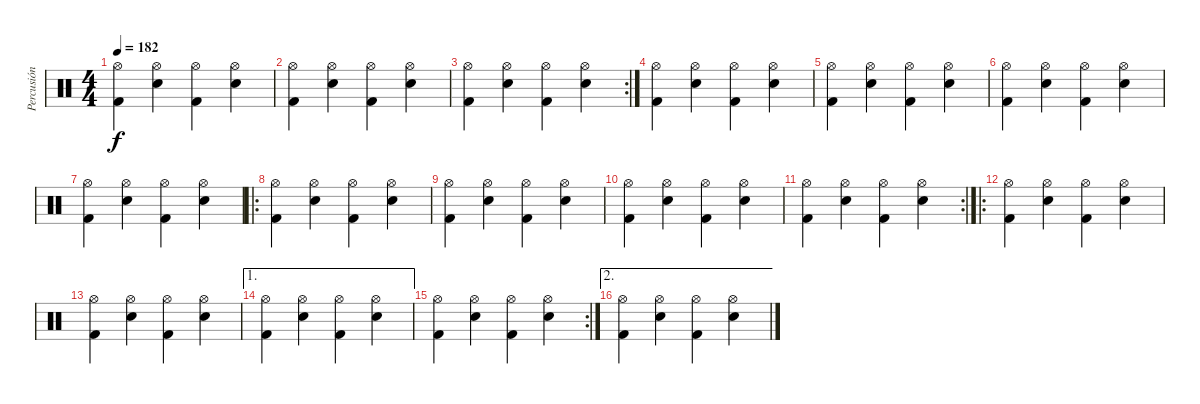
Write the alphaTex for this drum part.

\track ("Percusión" "Percusión") {instrument percussion}
\staff {score}
\articulation defaults
\ts (4 4)
\tempo 182
\clef neutral
\ks c
("Kick (hit) 2" "Hi-Hat (open)").4{dy f} ("Electric Snare (hit)" "Hi-Hat (open)").4 ("Kick (hit) 2" "Hi-Hat (open)").4 ("Electric Snare (hit)" "Hi-Hat (open)").4 |
("Kick (hit) 2" "Hi-Hat (open)").4 ("Electric Snare (hit)" "Hi-Hat (open)").4 ("Kick (hit) 2" "Hi-Hat (open)").4 ("Electric Snare (hit)" "Hi-Hat (open)").4 |
\rc 2
("Kick (hit) 2" "Hi-Hat (open)").4 ("Electric Snare (hit)" "Hi-Hat (open)").4 ("Kick (hit) 2" "Hi-Hat (open)").4 ("Electric Snare (hit)" "Hi-Hat (open)").4 |
("Kick (hit) 2" "Hi-Hat (open)").4 ("Electric Snare (hit)" "Hi-Hat (open)").4 ("Kick (hit) 2" "Hi-Hat (open)").4 ("Electric Snare (hit)" "Hi-Hat (open)").4 |
("Kick (hit) 2" "Hi-Hat (open)").4 ("Electric Snare (hit)" "Hi-Hat (open)").4 ("Kick (hit) 2" "Hi-Hat (open)").4 ("Electric Snare (hit)" "Hi-Hat (open)").4 |
("Kick (hit) 2" "Hi-Hat (open)").4 ("Electric Snare (hit)" "Hi-Hat (open)").4 ("Kick (hit) 2" "Hi-Hat (open)").4 ("Electric Snare (hit)" "Hi-Hat (open)").4 |
("Kick (hit) 2" "Hi-Hat (open)").4 ("Electric Snare (hit)" "Hi-Hat (open)").4 ("Kick (hit) 2" "Hi-Hat (open)").4 ("Electric Snare (hit)" "Hi-Hat (open)").4 |
\ro
("Kick (hit) 2" "Hi-Hat (open)").4 ("Electric Snare (hit)" "Hi-Hat (open)").4 ("Kick (hit) 2" "Hi-Hat (open)").4 ("Electric Snare (hit)" "Hi-Hat (open)").4 |
("Kick (hit) 2" "Hi-Hat (open)").4 ("Electric Snare (hit)" "Hi-Hat (open)").4 ("Kick (hit) 2" "Hi-Hat (open)").4 ("Electric Snare (hit)" "Hi-Hat (open)").4 |
("Kick (hit) 2" "Hi-Hat (open)").4 ("Electric Snare (hit)" "Hi-Hat (open)").4 ("Kick (hit) 2" "Hi-Hat (open)").4 ("Electric Snare (hit)" "Hi-Hat (open)").4 |
\rc 2
("Kick (hit) 2" "Hi-Hat (open)").4 ("Electric Snare (hit)" "Hi-Hat (open)").4 ("Kick (hit) 2" "Hi-Hat (open)").4 ("Electric Snare (hit)" "Hi-Hat (open)").4 |
\ro
("Kick (hit) 2" "Hi-Hat (open)").4 ("Electric Snare (hit)" "Hi-Hat (open)").4 ("Kick (hit) 2" "Hi-Hat (open)").4 ("Electric Snare (hit)" "Hi-Hat (open)").4 |
("Kick (hit) 2" "Hi-Hat (open)").4 ("Electric Snare (hit)" "Hi-Hat (open)").4 ("Kick (hit) 2" "Hi-Hat (open)").4 ("Electric Snare (hit)" "Hi-Hat (open)").4 |
\ae 1
("Kick (hit) 2" "Hi-Hat (open)").4 ("Electric Snare (hit)" "Hi-Hat (open)").4 ("Kick (hit) 2" "Hi-Hat (open)").4 ("Electric Snare (hit)" "Hi-Hat (open)").4 |
\rc 2
("Kick (hit) 2" "Hi-Hat (open)").4 ("Electric Snare (hit)" "Hi-Hat (open)").4 ("Kick (hit) 2" "Hi-Hat (open)").4 ("Electric Snare (hit)" "Hi-Hat (open)").4 |
\ae 2
("Kick (hit) 2" "Hi-Hat (open)").4 ("Electric Snare (hit)" "Hi-Hat (open)").4 ("Kick (hit) 2" "Hi-Hat (open)").4 ("Electric Snare (hit)" "Hi-Hat (open)").4
